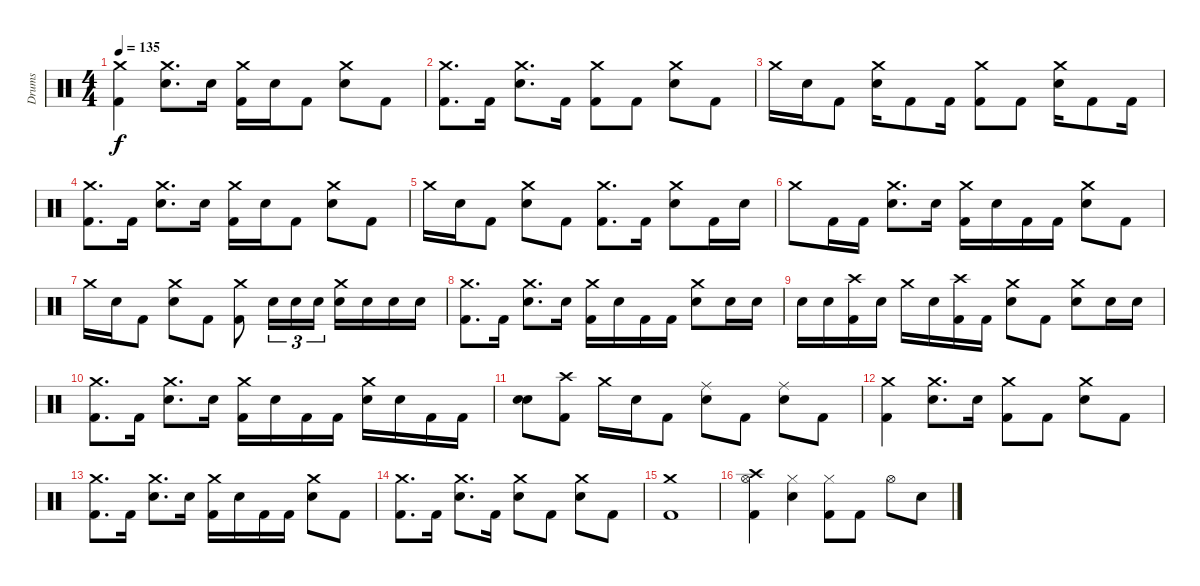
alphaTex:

\track ("Drums" "Drums") {instrument percussion}
\staff {score}
\articulation defaults
\ts (4 4)
\tempo 135
\clef neutral
\ks c
("Crash medium (hit)" "Kick (hit) 2").4{dy f} ("Crash medium (hit)" "Electric Snare (hit)").8{d} "Electric Snare (hit)".16 ("Crash medium (hit)" "Kick (hit) 2").16 "Electric Snare (hit)".16 "Kick (hit) 2".8 ("Crash medium (hit)" "Electric Snare (hit)").8 "Kick (hit) 2".8 |
("Crash medium (hit)" "Kick (hit) 2").8{d} "Kick (hit) 2".16 ("Crash medium (hit)" "Electric Snare (hit)").8{d} "Kick (hit) 2".16 ("Crash medium (hit)" "Kick (hit) 2").8 "Kick (hit) 2".8 ("Crash medium (hit)" "Electric Snare (hit)").8 "Kick (hit) 2".8 |
"Crash medium (hit)".16 "Electric Snare (hit)".16 "Kick (hit) 2".8 ("Crash medium (hit)" "Electric Snare (hit)").16 "Kick (hit) 2".8 "Kick (hit) 2".16 ("Crash medium (hit)" "Kick (hit) 2").8 "Kick (hit) 2".8 ("Crash medium (hit)" "Electric Snare (hit)").16 "Kick (hit) 2".8 "Kick (hit) 2".16 |
("Crash medium (hit)" "Kick (hit) 2").8{d} "Kick (hit) 2".16 ("Crash medium (hit)" "Electric Snare (hit)").8{d} "Electric Snare (hit)".16 ("Crash medium (hit)" "Kick (hit) 2").16 "Electric Snare (hit)".16 "Kick (hit) 2".8 ("Crash medium (hit)" "Electric Snare (hit)").8 "Kick (hit) 2".8 |
"Crash medium (hit)".16 "Electric Snare (hit)".16 "Kick (hit) 2".8 ("Crash medium (hit)" "Electric Snare (hit)").8 "Kick (hit) 2".8 ("Crash medium (hit)" "Kick (hit) 2").8{d} "Kick (hit) 2".16 ("Crash medium (hit)" "Electric Snare (hit)").8 "Kick (hit) 2".16 "Electric Snare (hit)".16 |
"Crash medium (hit)".8 "Kick (hit) 2".16 "Kick (hit) 2".16 ("Crash medium (hit)" "Electric Snare (hit)").8{d} "Electric Snare (hit)".16 ("Crash medium (hit)" "Kick (hit) 2").16 "Electric Snare (hit)".16 "Kick (hit) 2".16 "Kick (hit) 2".16 ("Crash medium (hit)" "Electric Snare (hit)").8 "Kick (hit) 2".8 |
"Crash medium (hit)".16 "Electric Snare (hit)".16 "Kick (hit) 2".8 ("Crash medium (hit)" "Electric Snare (hit)").8 "Kick (hit) 2".8 ("Crash medium (hit)" "Kick (hit) 2").8 "Electric Snare (hit)".16{tu (3 2)} "Electric Snare (hit)".16{tu (3 2)} "Electric Snare (hit)".16{tu (3 2)} ("Crash medium (hit)" "Electric Snare (hit)").16 "Electric Snare (hit)".16 "Electric Snare (hit)".16 "Electric Snare (hit)".16 |
("Crash medium (hit)" "Kick (hit) 2").8{d} "Kick (hit) 2".16 ("Crash medium (hit)" "Electric Snare (hit)").8{d} "Electric Snare (hit)".16 ("Crash medium (hit)" "Kick (hit) 2").16 "Electric Snare (hit)".16 "Kick (hit) 2".16 "Kick (hit) 2".16 ("Crash medium (hit)" "Electric Snare (hit)").8 "Electric Snare (hit)".16 "Electric Snare (hit)".16 |
"Electric Snare (hit)".16 "Electric Snare (hit)".16 ("Crash high (hit)" "Kick (hit) 2").16 "Electric Snare (hit)".16 "Crash medium (hit)".16 "Electric Snare (hit)".16 ("Crash high (hit)" "Kick (hit) 2").16 "Kick (hit) 2".16 ("Crash medium (hit)" "Electric Snare (hit)").8 "Kick (hit) 2".8 ("Crash medium (hit)" "Electric Snare (hit)").8 "Electric Snare (hit)".16 "Electric Snare (hit)".16 |
("Crash medium (hit)" "Kick (hit) 2").8{d} "Kick (hit) 2".16 ("Crash medium (hit)" "Electric Snare (hit)").8{d} "Electric Snare (hit)".16 ("Crash medium (hit)" "Kick (hit) 2").16 "Electric Snare (hit)".16 "Kick (hit) 2".16 "Kick (hit) 2".16 ("Crash medium (hit)" "Electric Snare (hit)").16 "Electric Snare (hit)".16 "Kick (hit) 2".16 "Kick (hit) 2".16 |
("Electric Snare (hit)" "Snare (hit) 2").8 ("Crash high (hit)" "Kick (hit) 2").8 "Crash medium (hit)".16 "Electric Snare (hit)".16 "Kick (hit) 2".8 ("Ride (middle)" "Electric Snare (hit)").8 "Kick (hit) 2".8 ("Ride (middle)" "Electric Snare (hit)").8 "Kick (hit) 2".8 |
("Crash medium (hit)" "Kick (hit) 2").4 ("Crash medium (hit)" "Electric Snare (hit)").8{d} "Electric Snare (hit)".16 ("Crash medium (hit)" "Kick (hit) 2").8 "Kick (hit) 2".8 ("Crash medium (hit)" "Electric Snare (hit)").8 "Kick (hit) 2".8 |
("Crash medium (hit)" "Kick (hit) 2").8{d} "Kick (hit) 2".16 ("Crash medium (hit)" "Electric Snare (hit)").8{d} "Electric Snare (hit)".16 ("Crash medium (hit)" "Kick (hit) 2").16 "Electric Snare (hit)".16 "Kick (hit) 2".16 "Kick (hit) 2".16 ("Crash medium (hit)" "Electric Snare (hit)").8 "Kick (hit) 2".8 |
("Crash medium (hit)" "Kick (hit) 2").8{d} "Kick (hit) 2".16 ("Crash medium (hit)" "Electric Snare (hit)").8{d} "Kick (hit) 2".16 ("Crash medium (hit)" "Electric Snare (hit)").8 "Kick (hit) 2".8 ("Crash medium (hit)" "Electric Snare (hit)").8 "Kick (hit) 2".8 |
("Crash medium (hit)" "Kick (hit) 2").1 |
("Crash high (hit)" "Hi-Hat (open)" "Kick (hit) 2").4 ("Hi-Hat (closed)" "Electric Snare (hit)").4 ("Hi-Hat (closed)" "Kick (hit) 2").8 "Kick (hit) 2".8 "Hi-Hat (open)".8 "Electric Snare (hit)".8
